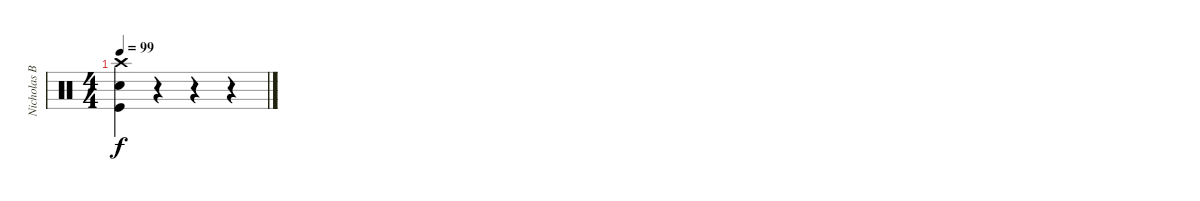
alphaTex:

\track ("Nicholas Barker" "Nicholas B") {instrument percussion}
\staff {score}
\articulation defaults
\ts (4 4)
\tempo 99
\clef neutral
\ks c
("Crash high (hit)" "Snare (hit) 2" "Kick (hit)").4{dy f} r.4 r.4 r.4
